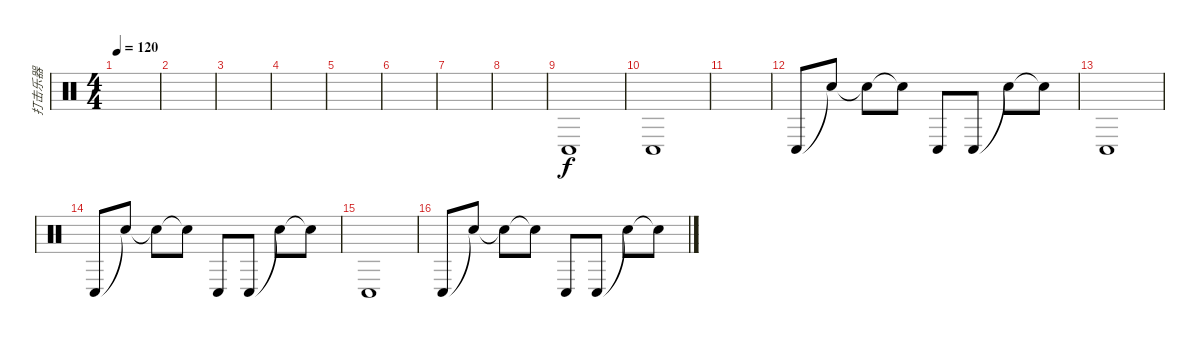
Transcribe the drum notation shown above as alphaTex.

\track ("打击乐器" "打击乐器") {instrument percussion}
\staff {score}
\articulation defaults
\ts (4 4)
\tempo 120
\clef neutral
\ks c
|
|
|
|
|
|
|
|
"Conga low (hit)".1 |
"Conga low (hit)".1 |
|
"Conga low (hit)".8 "Snare (hit)"{t}.8 "Snare (hit)"{t}.8 "Snare (hit)"{t}.8 "Conga low (hit)".8 "Conga low (hit)".8 "Snare (hit)"{t}.8 "Snare (hit)"{t}.8 |
"Conga low (hit)".1 |
"Conga low (hit)".8 "Snare (hit)"{t}.8 "Snare (hit)"{t}.8 "Snare (hit)"{t}.8 "Conga low (hit)".8 "Conga low (hit)".8 "Snare (hit)"{t}.8 "Snare (hit)"{t}.8 |
"Conga low (hit)".1 |
"Conga low (hit)".8 "Snare (hit)"{t}.8 "Snare (hit)"{t}.8 "Snare (hit)"{t}.8 "Conga low (hit)".8 "Conga low (hit)".8 "Snare (hit)"{t}.8 "Snare (hit)"{t}.8
